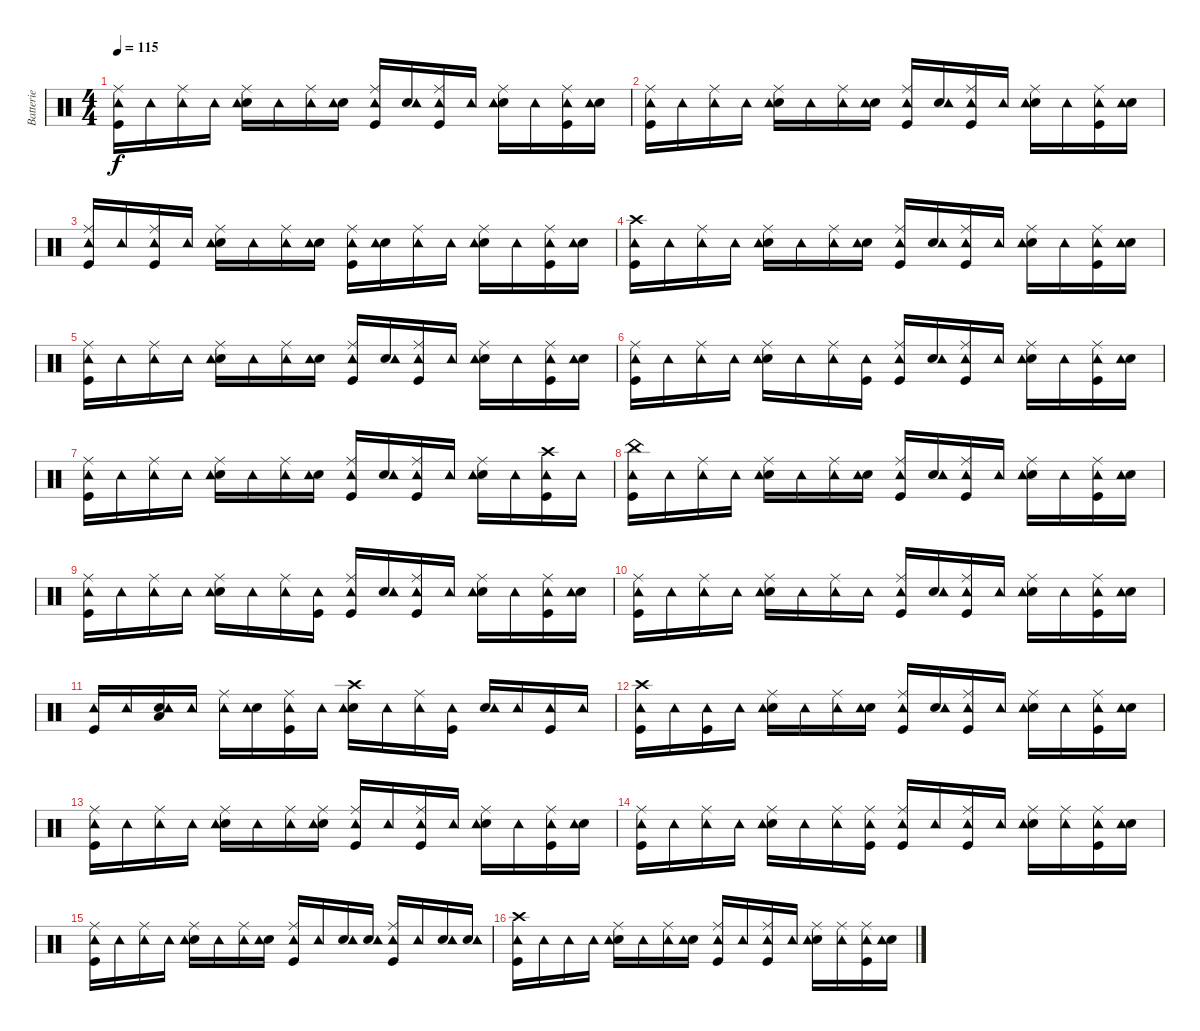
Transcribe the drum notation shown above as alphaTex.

\track ("Batterie" "Batterie") {instrument percussion}
\staff {score}
\articulation defaults
\ts (4 4)
\tempo 115
\clef neutral
\ks c
("Kick (hit)" "Ride (middle)" "Tambourine (hit)").16{dy f} "Tambourine (hit)".16 ("Ride (middle)" "Tambourine (hit)").16 "Tambourine (hit)".16 ("Ride (middle)" "Electric Snare (hit)" "Tambourine (hit)").16 "Tambourine (hit)".16 ("Ride (middle)" "Tambourine (hit)").16 ("Electric Snare (hit)" "Tambourine (hit)").16 ("Ride (middle)" "Kick (hit)" "Tambourine (hit)").16 ("Electric Snare (hit)" "Tambourine (hit)").16 ("Ride (middle)" "Kick (hit)" "Tambourine (hit)").16 "Tambourine (hit)".16 ("Ride (middle)" "Electric Snare (hit)" "Tambourine (hit)").16 "Tambourine (hit)".16 ("Ride (middle)" "Kick (hit)" "Tambourine (hit)").16 ("Electric Snare (hit)" "Tambourine (hit)").16 |
("Kick (hit)" "Ride (middle)" "Tambourine (hit)").16 "Tambourine (hit)".16 ("Ride (middle)" "Tambourine (hit)").16 "Tambourine (hit)".16 ("Ride (middle)" "Electric Snare (hit)" "Tambourine (hit)").16 "Tambourine (hit)".16 ("Ride (middle)" "Tambourine (hit)").16 ("Electric Snare (hit)" "Tambourine (hit)").16 ("Kick (hit)" "Ride (middle)" "Tambourine (hit)").16 ("Electric Snare (hit)" "Tambourine (hit)").16 ("Ride (middle)" "Kick (hit)" "Tambourine (hit)").16 "Tambourine (hit)".16 ("Ride (middle)" "Electric Snare (hit)" "Tambourine (hit)").16 "Tambourine (hit)".16 ("Ride (middle)" "Kick (hit)" "Tambourine (hit)").16 ("Electric Snare (hit)" "Tambourine (hit)").16 |
("Kick (hit)" "Ride (middle)" "Tambourine (hit)").16 "Tambourine (hit)".16 ("Ride (middle)" "Kick (hit)" "Tambourine (hit)").16 "Tambourine (hit)".16 ("Electric Snare (hit)" "Ride (middle)" "Tambourine (hit)").16 "Tambourine (hit)".16 ("Ride (middle)" "Tambourine (hit)").16 ("Electric Snare (hit)" "Tambourine (hit)").16 ("Kick (hit)" "Ride (middle)" "Tambourine (hit)").16 ("Electric Snare (hit)" "Tambourine (hit)").16 ("Ride (middle)" "Tambourine (hit)").16 "Tambourine (hit)".16 ("Electric Snare (hit)" "Ride (middle)" "Tambourine (hit)").16 "Tambourine (hit)".16 ("Ride (middle)" "Kick (hit)" "Tambourine (hit)").16 ("Electric Snare (hit)" "Tambourine (hit)").16 |
("Kick (hit)" "Crash high (hit)" "Tambourine (hit)").16 "Tambourine (hit)".16 ("Ride (middle)" "Tambourine (hit)").16 "Tambourine (hit)".16 ("Ride (middle)" "Electric Snare (hit)" "Tambourine (hit)").16 "Tambourine (hit)".16 ("Ride (middle)" "Tambourine (hit)").16 ("Electric Snare (hit)" "Tambourine (hit)").16 ("Kick (hit)" "Ride (middle)" "Tambourine (hit)").16 ("Electric Snare (hit)" "Tambourine (hit)").16 ("Ride (middle)" "Kick (hit)" "Tambourine (hit)").16 "Tambourine (hit)".16 ("Ride (middle)" "Electric Snare (hit)" "Tambourine (hit)").16 "Tambourine (hit)".16 ("Ride (middle)" "Kick (hit)" "Tambourine (hit)").16 ("Electric Snare (hit)" "Tambourine (hit)").16 |
("Kick (hit)" "Ride (middle)" "Tambourine (hit)").16 "Tambourine (hit)".16 ("Ride (middle)" "Tambourine (hit)").16 "Tambourine (hit)".16 ("Electric Snare (hit)" "Ride (middle)" "Tambourine (hit)").16 "Tambourine (hit)".16 ("Ride (middle)" "Tambourine (hit)").16 ("Electric Snare (hit)" "Tambourine (hit)").16 ("Ride (middle)" "Kick (hit)" "Tambourine (hit)").16 ("Electric Snare (hit)" "Tambourine (hit)").16 ("Ride (middle)" "Kick (hit)" "Tambourine (hit)").16 "Tambourine (hit)".16 ("Ride (middle)" "Electric Snare (hit)" "Tambourine (hit)").16 "Tambourine (hit)".16 ("Ride (middle)" "Kick (hit)" "Tambourine (hit)").16 ("Electric Snare (hit)" "Tambourine (hit)").16 |
("Kick (hit)" "Ride (middle)" "Tambourine (hit)").16 "Tambourine (hit)".16 ("Ride (middle)" "Tambourine (hit)").16 "Tambourine (hit)".16 ("Electric Snare (hit)" "Ride (middle)" "Tambourine (hit)").16 "Tambourine (hit)".16 ("Ride (middle)" "Tambourine (hit)").16 ("Kick (hit)" "Tambourine (hit)").16 ("Ride (middle)" "Kick (hit)" "Tambourine (hit)").16 ("Electric Snare (hit)" "Tambourine (hit)").16 ("Kick (hit)" "Ride (middle)" "Tambourine (hit)").16 "Tambourine (hit)".16 ("Electric Snare (hit)" "Ride (middle)" "Tambourine (hit)").16 "Tambourine (hit)".16 ("Kick (hit)" "Ride (middle)" "Tambourine (hit)").16 ("Electric Snare (hit)" "Tambourine (hit)").16 |
("Ride (middle)" "Kick (hit)" "Tambourine (hit)").16 "Tambourine (hit)".16 ("Ride (middle)" "Tambourine (hit)").16 "Tambourine (hit)".16 ("Electric Snare (hit)" "Ride (middle)" "Tambourine (hit)").16 "Tambourine (hit)".16 ("Ride (middle)" "Tambourine (hit)").16 ("Electric Snare (hit)" "Tambourine (hit)").16 ("Kick (hit)" "Ride (middle)" "Tambourine (hit)").16 ("Electric Snare (hit)" "Tambourine (hit)").16 ("Ride (middle)" "Kick (hit)" "Tambourine (hit)").16 "Tambourine (hit)".16 ("Electric Snare (hit)" "Ride (middle)" "Tambourine (hit)").16 "Tambourine (hit)".16 ("Kick (hit)" "Crash high (hit)" "Tambourine (hit)").16 "Tambourine (hit)".16 |
("China (hit)" "Kick (hit)" "Tambourine (hit)").16 "Tambourine (hit)".16 ("Ride (middle)" "Tambourine (hit)").16 "Tambourine (hit)".16 ("Ride (middle)" "Electric Snare (hit)" "Tambourine (hit)").16 "Tambourine (hit)".16 ("Ride (middle)" "Tambourine (hit)").16 ("Electric Snare (hit)" "Tambourine (hit)").16 ("Kick (hit)" "Ride (middle)" "Tambourine (hit)").16 ("Electric Snare (hit)" "Tambourine (hit)").16 ("Kick (hit)" "Ride (middle)" "Tambourine (hit)").16 "Tambourine (hit)".16 ("Ride (middle)" "Electric Snare (hit)" "Tambourine (hit)").16 "Tambourine (hit)".16 ("Ride (middle)" "Kick (hit)" "Tambourine (hit)").16 ("Electric Snare (hit)" "Tambourine (hit)").16 |
("Ride (middle)" "Kick (hit)" "Tambourine (hit)").16 "Tambourine (hit)".16 ("Ride (middle)" "Tambourine (hit)").16 "Tambourine (hit)".16 ("Ride (middle)" "Electric Snare (hit)" "Tambourine (hit)").16 "Tambourine (hit)".16 ("Ride (middle)" "Tambourine (hit)").16 ("Kick (hit)" "Tambourine (hit)").16 ("Ride (middle)" "Kick (hit)" "Tambourine (hit)").16 ("Electric Snare (hit)" "Tambourine (hit)").16 ("Kick (hit)" "Ride (middle)" "Tambourine (hit)").16 "Tambourine (hit)".16 ("Electric Snare (hit)" "Ride (middle)" "Tambourine (hit)").16 "Tambourine (hit)".16 ("Kick (hit)" "Ride (middle)" "Tambourine (hit)").16 ("Electric Snare (hit)" "Tambourine (hit)").16 |
("Ride (middle)" "Kick (hit)" "Tambourine (hit)").16 "Tambourine (hit)".16 ("Ride (middle)" "Tambourine (hit)").16 "Tambourine (hit)".16 ("Electric Snare (hit)" "Ride (middle)" "Tambourine (hit)").16 "Tambourine (hit)".16 ("Ride (middle)" "Tambourine (hit)").16 "Tambourine (hit)".16 ("Ride (middle)" "Kick (hit)" "Tambourine (hit)").16 ("Electric Snare (hit)" "Tambourine (hit)").16 ("Kick (hit)" "Ride (middle)" "Tambourine (hit)").16 "Tambourine (hit)".16 ("Ride (middle)" "Electric Snare (hit)" "Tambourine (hit)").16 "Tambourine (hit)".16 ("Ride (middle)" "Kick (hit)" "Tambourine (hit)").16 ("Electric Snare (hit)" "Tambourine (hit)").16 |
("Kick (hit)" "Tambourine (hit)").16 "Tambourine (hit)".16 ("Low Floor Tom (hit)" "Electric Snare (hit)" "Tambourine (hit)").16 "Tambourine (hit)".16 ("Ride (middle)" "Tambourine (hit)").16 ("Electric Snare (hit)" "Tambourine (hit)").16 ("Ride (middle)" "Kick (hit)" "Tambourine (hit)").16 "Tambourine (hit)".16 ("Crash high (hit)" "Electric Snare (hit)" "Tambourine (hit)").16 "Tambourine (hit)".16 ("Ride (middle)" "Tambourine (hit)").16 ("Kick (hit)" "Tambourine (hit)").16 ("Electric Snare (hit)" "Tambourine (hit)").16 "Tambourine (hit)".16 ("Kick (hit)" "Tambourine (hit)").16 "Tambourine (hit)".16 |
("Crash high (hit)" "Kick (hit)" "Tambourine (hit)").16 "Tambourine (hit)".16 ("Kick (hit)" "Tambourine (hit)").16 "Tambourine (hit)".16 ("Ride (middle)" "Electric Snare (hit)" "Tambourine (hit)").16 "Tambourine (hit)".16 ("Ride (middle)" "Tambourine (hit)").16 ("Electric Snare (hit)" "Tambourine (hit)").16 ("Ride (middle)" "Kick (hit)" "Tambourine (hit)").16 ("Electric Snare (hit)" "Tambourine (hit)").16 ("Kick (hit)" "Ride (middle)" "Tambourine (hit)").16 "Tambourine (hit)".16 ("Electric Snare (hit)" "Ride (middle)" "Tambourine (hit)").16 "Tambourine (hit)".16 ("Ride (middle)" "Kick (hit)" "Tambourine (hit)").16 ("Electric Snare (hit)" "Tambourine (hit)").16 |
("Kick (hit)" "Ride (middle)" "Tambourine (hit)").16 "Tambourine (hit)".16 ("Ride (middle)" "Tambourine (hit)").16 "Tambourine (hit)".16 ("Ride (middle)" "Electric Snare (hit)" "Tambourine (hit)").16 "Tambourine (hit)".16 ("Ride (middle)" "Tambourine (hit)").16 ("Ride (middle)" "Electric Snare (hit)" "Tambourine (hit)").16 ("Ride (middle)" "Kick (hit)" "Tambourine (hit)").16 "Tambourine (hit)".16 ("Kick (hit)" "Ride (middle)" "Tambourine (hit)").16 "Tambourine (hit)".16 ("Electric Snare (hit)" "Ride (middle)" "Tambourine (hit)").16 "Tambourine (hit)".16 ("Kick (hit)" "Ride (middle)" "Tambourine (hit)").16 ("Electric Snare (hit)" "Tambourine (hit)").16 |
("Ride (middle)" "Kick (hit)" "Tambourine (hit)").16 "Tambourine (hit)".16 ("Ride (middle)" "Tambourine (hit)").16 "Tambourine (hit)".16 ("Electric Snare (hit)" "Ride (middle)" "Tambourine (hit)").16 "Tambourine (hit)".16 ("Ride (middle)" "Tambourine (hit)").16 ("Ride (middle)" "Kick (hit)" "Tambourine (hit)").16 ("Ride (middle)" "Kick (hit)" "Tambourine (hit)").16 "Tambourine (hit)".16 ("Kick (hit)" "Ride (middle)" "Tambourine (hit)").16 "Tambourine (hit)".16 ("Ride (middle)" "Electric Snare (hit)" "Tambourine (hit)").16 ("Ride (middle)" "Tambourine (hit)").16 ("Ride (middle)" "Kick (hit)" "Tambourine (hit)").16 ("Electric Snare (hit)" "Tambourine (hit)").16 |
("Ride (middle)" "Kick (hit)" "Tambourine (hit)").16 "Tambourine (hit)".16 ("Ride (middle)" "Tambourine (hit)").16 "Tambourine (hit)".16 ("Electric Snare (hit)" "Ride (middle)" "Tambourine (hit)").16 "Tambourine (hit)".16 ("Ride (middle)" "Tambourine (hit)").16 ("Electric Snare (hit)" "Tambourine (hit)").16 ("Ride (middle)" "Kick (hit)" "Tambourine (hit)").16 "Tambourine (hit)".16 ("Electric Snare (hit)" "Tambourine (hit)").16 ("Electric Snare (hit)" "Tambourine (hit)").16 ("Ride (middle)" "Kick (hit)" "Tambourine (hit)").16 "Tambourine (hit)".16 ("Electric Snare (hit)" "Tambourine (hit)").16 ("Electric Snare (hit)" "Tambourine (hit)").16 |
("Crash high (hit)" "Kick (hit)" "Tambourine (hit)").16 "Tambourine (hit)".16 "Tambourine (hit)".16 "Tambourine (hit)".16 ("Electric Snare (hit)" "Ride (middle)" "Tambourine (hit)").16 "Tambourine (hit)".16 ("Ride (middle)" "Tambourine (hit)").16 ("Electric Snare (hit)" "Tambourine (hit)").16 ("Kick (hit)" "Ride (middle)" "Tambourine (hit)").16 "Tambourine (hit)".16 ("Ride (middle)" "Kick (hit)" "Tambourine (hit)").16 "Tambourine (hit)".16 ("Electric Snare (hit)" "Ride (middle)" "Tambourine (hit)").16 ("Ride (middle)" "Tambourine (hit)").16 ("Ride (middle)" "Kick (hit)" "Tambourine (hit)").16 ("Electric Snare (hit)" "Tambourine (hit)").16
